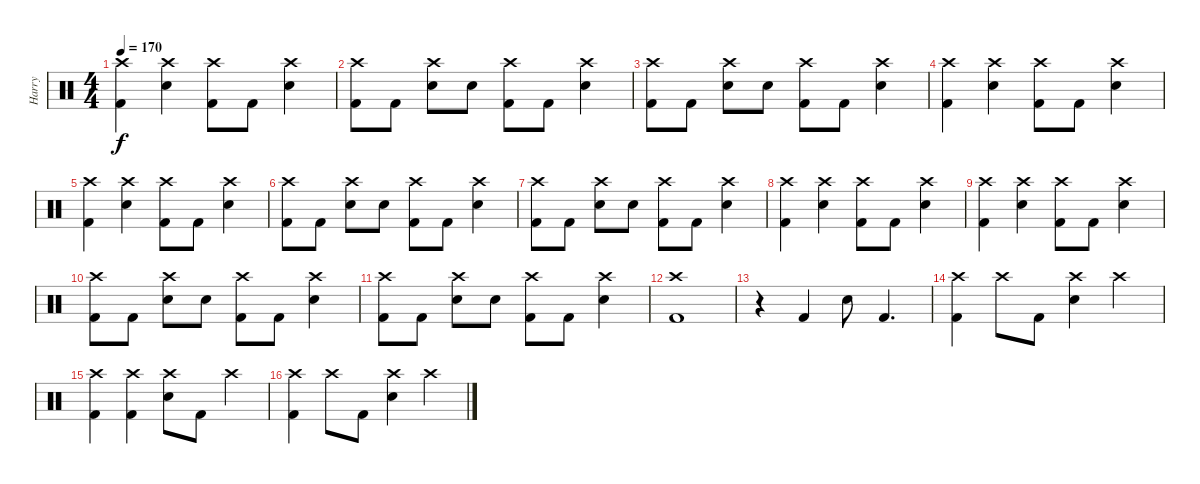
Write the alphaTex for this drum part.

\track ("Harry" "Harry") {instrument percussion}
\staff {score}
\articulation defaults
\ts (4 4)
\tempo 170
\clef neutral
\ks c
("Kick (hit) 2" "Crash high (hit)").4{dy f} ("Snare (hit) 2" "Crash high (hit)").4 ("Kick (hit) 2" "Crash high (hit)").8 "Kick (hit) 2".8 ("Snare (hit) 2" "Crash high (hit)").4 |
("Kick (hit) 2" "Crash high (hit)").8 "Kick (hit) 2".8 ("Snare (hit) 2" "Crash high (hit)").8 "Snare (hit) 2".8 ("Kick (hit) 2" "Crash high (hit)").8 "Kick (hit) 2".8 ("Snare (hit) 2" "Crash high (hit)").4 |
("Kick (hit) 2" "Crash high (hit)").8 "Kick (hit) 2".8 ("Snare (hit) 2" "Crash high (hit)").8 "Snare (hit) 2".8 ("Kick (hit) 2" "Crash high (hit)").8 "Kick (hit) 2".8 ("Snare (hit) 2" "Crash high (hit)").4 |
("Kick (hit) 2" "Crash high (hit)").4 ("Snare (hit) 2" "Crash high (hit)").4 ("Kick (hit) 2" "Crash high (hit)").8 "Kick (hit) 2".8 ("Snare (hit) 2" "Crash high (hit)").4 |
("Kick (hit) 2" "Crash high (hit)").4 ("Snare (hit) 2" "Crash high (hit)").4 ("Kick (hit) 2" "Crash high (hit)").8 "Kick (hit) 2".8 ("Snare (hit) 2" "Crash high (hit)").4 |
("Kick (hit) 2" "Crash high (hit)").8 "Kick (hit) 2".8 ("Snare (hit) 2" "Crash high (hit)").8 "Snare (hit) 2".8 ("Kick (hit) 2" "Crash high (hit)").8 "Kick (hit) 2".8 ("Snare (hit) 2" "Crash high (hit)").4 |
("Kick (hit) 2" "Crash high (hit)").8 "Kick (hit) 2".8 ("Snare (hit) 2" "Crash high (hit)").8 "Snare (hit) 2".8 ("Kick (hit) 2" "Crash high (hit)").8 "Kick (hit) 2".8 ("Snare (hit) 2" "Crash high (hit)").4 |
("Kick (hit) 2" "Crash high (hit)").4 ("Snare (hit) 2" "Crash high (hit)").4 ("Kick (hit) 2" "Crash high (hit)").8 "Kick (hit) 2".8 ("Snare (hit) 2" "Crash high (hit)").4 |
("Kick (hit) 2" "Crash high (hit)").4 ("Snare (hit) 2" "Crash high (hit)").4 ("Kick (hit) 2" "Crash high (hit)").8 "Kick (hit) 2".8 ("Snare (hit) 2" "Crash high (hit)").4 |
("Kick (hit) 2" "Crash high (hit)").8 "Kick (hit) 2".8 ("Snare (hit) 2" "Crash high (hit)").8 "Snare (hit) 2".8 ("Kick (hit) 2" "Crash high (hit)").8 "Kick (hit) 2".8 ("Snare (hit) 2" "Crash high (hit)").4 |
("Kick (hit) 2" "Crash high (hit)").8 "Kick (hit) 2".8 ("Snare (hit) 2" "Crash high (hit)").8 "Snare (hit) 2".8 ("Kick (hit) 2" "Crash high (hit)").8 "Kick (hit) 2".8 ("Snare (hit) 2" "Crash high (hit)").4 |
("Crash high (hit)" "Kick (hit) 2").1 |
r.4 "Kick (hit) 2".4 "Snare (hit) 2".8 "Kick (hit) 2".4{d} |
("Crash high (hit)" "Kick (hit) 2").4 "Crash high (hit)".8 "Kick (hit) 2".8 ("Crash high (hit)" "Snare (hit) 2").4 "Crash high (hit)".4 |
("Crash high (hit)" "Kick (hit) 2").4 ("Crash high (hit)" "Kick (hit) 2").4 ("Crash high (hit)" "Snare (hit) 2").8 "Kick (hit) 2".8 "Crash high (hit)".4 |
("Crash high (hit)" "Kick (hit) 2").4 "Crash high (hit)".8 "Kick (hit) 2".8 ("Crash high (hit)" "Snare (hit) 2").4 "Crash high (hit)".4
